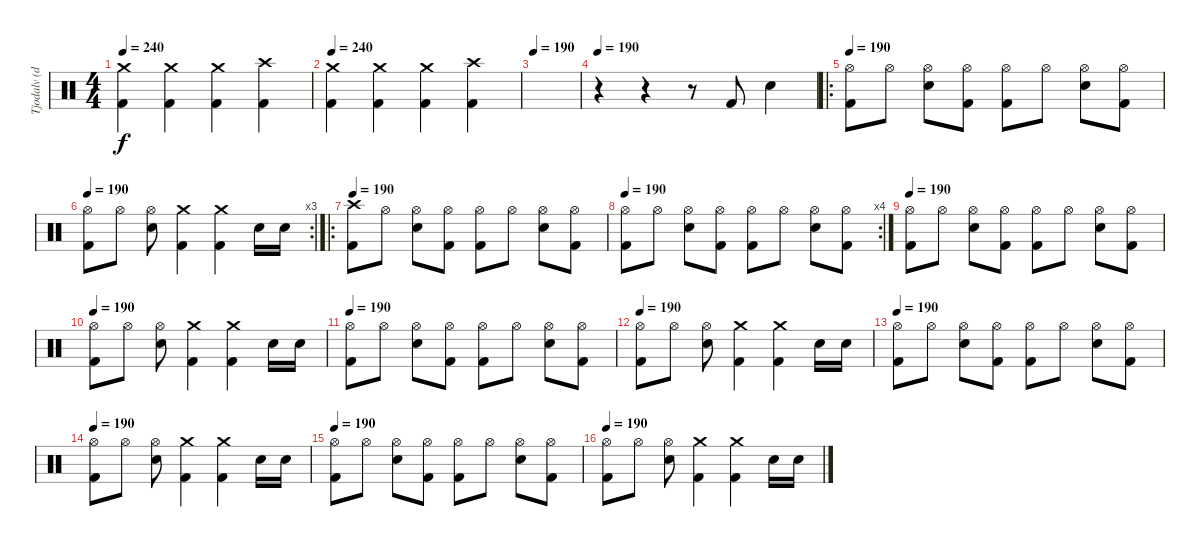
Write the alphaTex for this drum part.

\track ("Tjodalv (drums)" "Tjodalv (d") {instrument percussion}
\staff {score}
\articulation defaults
\ts (4 4)
\tempo 240
\clef neutral
\ks c
("Crash medium (hit)" "Kick (hit) 2").4{dy f} ("Crash medium (hit)" "Kick (hit) 2").4 ("Crash medium (hit)" "Kick (hit) 2").4 ("Crash high (hit)" "Kick (hit) 2").4 |
\tempo 240
("Crash medium (hit)" "Kick (hit) 2").4 ("Crash medium (hit)" "Kick (hit) 2").4 ("Crash medium (hit)" "Kick (hit) 2").4 ("Crash high (hit)" "Kick (hit) 2").4 |
\tempo 190
|
\tempo 190
r.4 r.4 r.8 "Kick (hit) 2".8 "Snare (hit) 2".4 |
\ro
\tempo 190
("Hi-Hat (open)" "Kick (hit) 2").8 "Hi-Hat (open)".8 ("Hi-Hat (open)" "Snare (hit) 2").8 ("Hi-Hat (open)" "Kick (hit) 2").8 ("Hi-Hat (open)" "Kick (hit) 2").8 "Hi-Hat (open)".8 ("Hi-Hat (open)" "Snare (hit) 2").8 ("Hi-Hat (open)" "Kick (hit) 2").8 |
\rc 3
\tempo 190
("Hi-Hat (open)" "Kick (hit) 2").8 "Hi-Hat (open)".8 ("Hi-Hat (open)" "Snare (hit) 2").8 ("Crash medium (hit)" "Kick (hit) 2").4 ("Crash medium (hit)" "Kick (hit) 2").4 "Snare (hit) 2".16 "Snare (hit) 2".16 |
\ro
\tempo 190
("Crash high (hit)" "Kick (hit) 2").8 "Hi-Hat (open)".8 ("Hi-Hat (open)" "Snare (hit) 2").8 ("Hi-Hat (open)" "Kick (hit) 2").8 ("Hi-Hat (open)" "Kick (hit) 2").8 "Hi-Hat (open)".8 ("Hi-Hat (open)" "Snare (hit) 2").8 ("Hi-Hat (open)" "Kick (hit) 2").8 |
\rc 4
\tempo 190
("Hi-Hat (open)" "Kick (hit) 2").8 "Hi-Hat (open)".8 ("Hi-Hat (open)" "Snare (hit) 2").8 ("Hi-Hat (open)" "Kick (hit) 2").8 ("Hi-Hat (open)" "Kick (hit) 2").8 "Hi-Hat (open)".8 ("Hi-Hat (open)" "Snare (hit) 2").8 ("Hi-Hat (open)" "Kick (hit) 2").8 |
\tempo 190
("Hi-Hat (open)" "Kick (hit) 2").8 "Hi-Hat (open)".8 ("Hi-Hat (open)" "Snare (hit) 2").8 ("Hi-Hat (open)" "Kick (hit) 2").8 ("Hi-Hat (open)" "Kick (hit) 2").8 "Hi-Hat (open)".8 ("Hi-Hat (open)" "Snare (hit) 2").8 ("Hi-Hat (open)" "Kick (hit) 2").8 |
\tempo 190
("Hi-Hat (open)" "Kick (hit) 2").8 "Hi-Hat (open)".8 ("Hi-Hat (open)" "Snare (hit) 2").8 ("Crash medium (hit)" "Kick (hit) 2").4 ("Crash medium (hit)" "Kick (hit) 2").4 "Snare (hit) 2".16 "Snare (hit) 2".16 |
\tempo 190
("Hi-Hat (open)" "Kick (hit) 2").8 "Hi-Hat (open)".8 ("Hi-Hat (open)" "Snare (hit) 2").8 ("Hi-Hat (open)" "Kick (hit) 2").8 ("Hi-Hat (open)" "Kick (hit) 2").8 "Hi-Hat (open)".8 ("Hi-Hat (open)" "Snare (hit) 2").8 ("Hi-Hat (open)" "Kick (hit) 2").8 |
\tempo 190
("Hi-Hat (open)" "Kick (hit) 2").8 "Hi-Hat (open)".8 ("Hi-Hat (open)" "Snare (hit) 2").8 ("Crash medium (hit)" "Kick (hit) 2").4 ("Crash medium (hit)" "Kick (hit) 2").4 "Snare (hit) 2".16 "Snare (hit) 2".16 |
\tempo 190
("Hi-Hat (open)" "Kick (hit) 2").8 "Hi-Hat (open)".8 ("Hi-Hat (open)" "Snare (hit) 2").8 ("Hi-Hat (open)" "Kick (hit) 2").8 ("Hi-Hat (open)" "Kick (hit) 2").8 "Hi-Hat (open)".8 ("Hi-Hat (open)" "Snare (hit) 2").8 ("Hi-Hat (open)" "Kick (hit) 2").8 |
\tempo 190
("Hi-Hat (open)" "Kick (hit) 2").8 "Hi-Hat (open)".8 ("Hi-Hat (open)" "Snare (hit) 2").8 ("Crash medium (hit)" "Kick (hit) 2").4 ("Crash medium (hit)" "Kick (hit) 2").4 "Snare (hit) 2".16 "Snare (hit) 2".16 |
\tempo 190
("Hi-Hat (open)" "Kick (hit) 2").8 "Hi-Hat (open)".8 ("Hi-Hat (open)" "Snare (hit) 2").8 ("Hi-Hat (open)" "Kick (hit) 2").8 ("Hi-Hat (open)" "Kick (hit) 2").8 "Hi-Hat (open)".8 ("Hi-Hat (open)" "Snare (hit) 2").8 ("Hi-Hat (open)" "Kick (hit) 2").8 |
\tempo 190
("Hi-Hat (open)" "Kick (hit) 2").8 "Hi-Hat (open)".8 ("Hi-Hat (open)" "Snare (hit) 2").8 ("Crash medium (hit)" "Kick (hit) 2").4 ("Crash medium (hit)" "Kick (hit) 2").4 "Snare (hit) 2".16 "Snare (hit) 2".16
